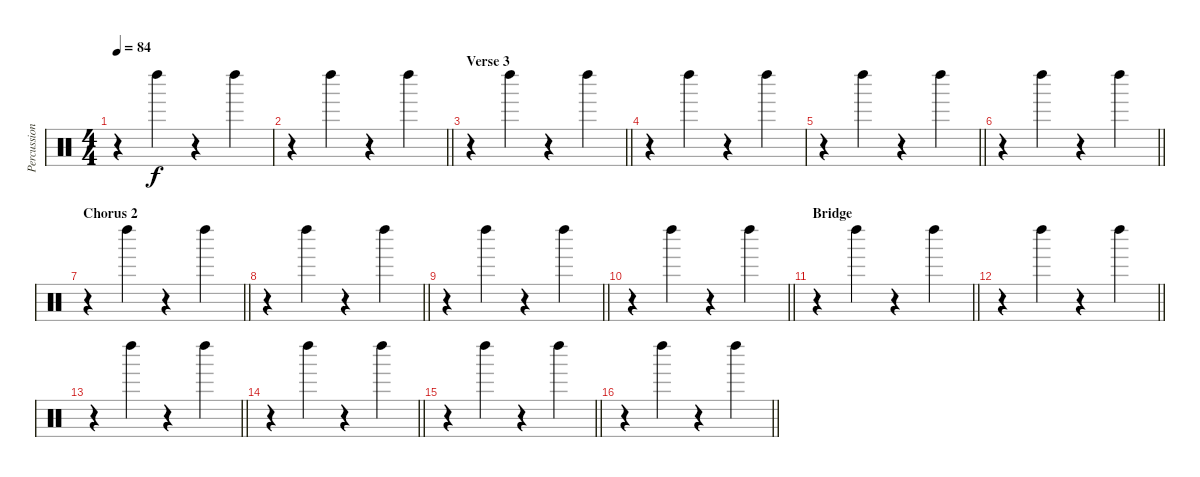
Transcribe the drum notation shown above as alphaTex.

\track ("Percussion" "Percussion") {instrument percussion}
\staff {score}
\articulation defaults
\ts (4 4)
\tempo 84
\clef neutral
\ks c
r.4{dy f} "Left Maraca (hit)".4 r.4 "Left Maraca (hit)".4 |
\barLineRight lightlight
r.4 "Left Maraca (hit)".4 r.4 "Left Maraca (hit)".4 |
\section ("" "Verse 3")
\barLineRight lightlight
r.4 "Left Maraca (hit)".4 r.4 "Left Maraca (hit)".4 |
r.4 "Left Maraca (hit)".4 r.4 "Left Maraca (hit)".4 |
\barLineRight lightlight
r.4 "Left Maraca (hit)".4 r.4 "Left Maraca (hit)".4 |
\barLineRight lightlight
r.4 "Left Maraca (hit)".4 r.4 "Left Maraca (hit)".4 |
\section ("" "Chorus 2")
\barLineRight lightlight
r.4 "Left Maraca (hit)".4 r.4 "Left Maraca (hit)".4 |
\barLineRight lightlight
r.4 "Left Maraca (hit)".4 r.4 "Left Maraca (hit)".4 |
\barLineRight lightlight
r.4 "Left Maraca (hit)".4 r.4 "Left Maraca (hit)".4 |
\barLineRight lightlight
r.4 "Left Maraca (hit)".4 r.4 "Left Maraca (hit)".4 |
\section ("" "Bridge")
\barLineRight lightlight
r.4 "Left Maraca (hit)".4 r.4 "Left Maraca (hit)".4 |
\barLineRight lightlight
r.4 "Left Maraca (hit)".4 r.4 "Left Maraca (hit)".4 |
\barLineRight lightlight
r.4 "Left Maraca (hit)".4 r.4 "Left Maraca (hit)".4 |
\barLineRight lightlight
r.4 "Left Maraca (hit)".4 r.4 "Left Maraca (hit)".4 |
\barLineRight lightlight
r.4 "Left Maraca (hit)".4 r.4 "Left Maraca (hit)".4 |
\barLineRight lightlight
r.4 "Left Maraca (hit)".4 r.4 "Left Maraca (hit)".4
